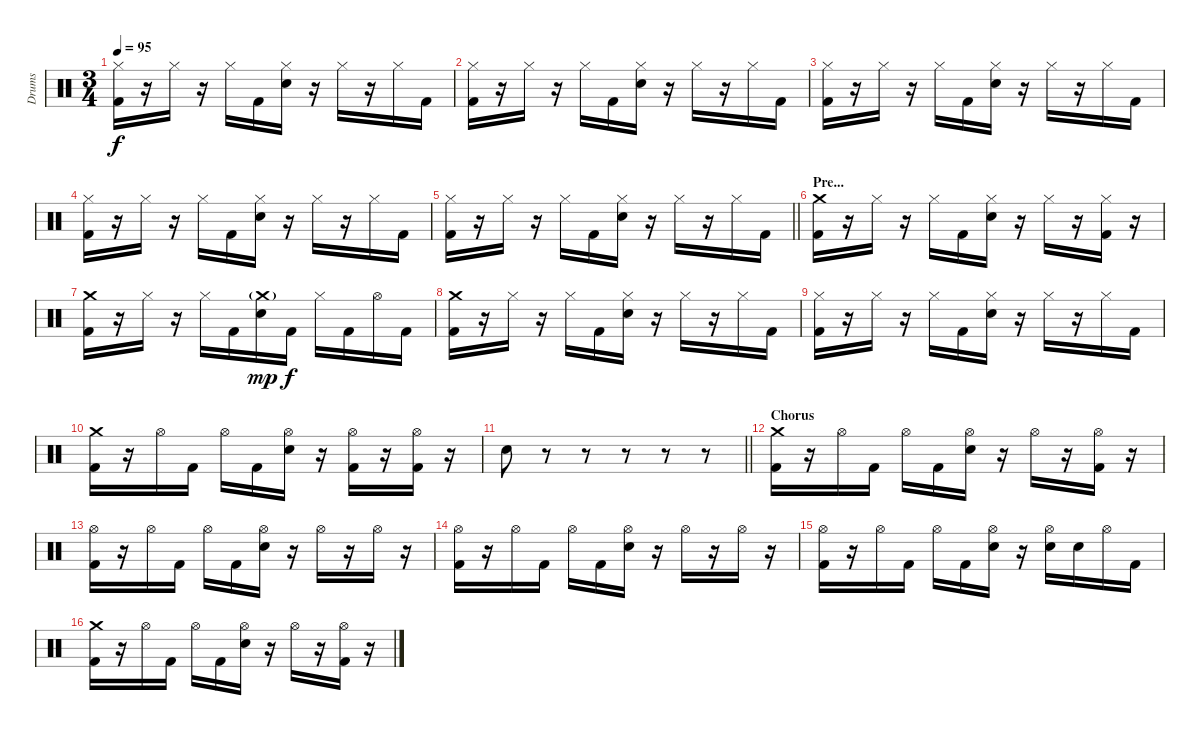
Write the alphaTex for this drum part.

\track ("Drums" "Drums") {instrument percussion}
\staff {score}
\articulation defaults
\ts (3 4)
\tempo 95
\clef neutral
\ks c
("Hi-Hat (closed)" "Kick (hit) 2").16{dy f} r.16 "Hi-Hat (closed)".16 r.16 "Hi-Hat (closed)".16 "Kick (hit) 2".16 ("Hi-Hat (closed)" "Electric Snare (hit)").16 r.16 "Hi-Hat (closed)".16 r.16 "Hi-Hat (closed)".16 "Kick (hit) 2".16 |
("Hi-Hat (closed)" "Kick (hit) 2").16 r.16 "Hi-Hat (closed)".16 r.16 "Hi-Hat (closed)".16 "Kick (hit) 2".16 ("Hi-Hat (closed)" "Electric Snare (hit)").16 r.16 "Hi-Hat (closed)".16 r.16 "Hi-Hat (closed)".16 "Kick (hit) 2".16 |
("Hi-Hat (closed)" "Kick (hit) 2").16 r.16 "Hi-Hat (closed)".16 r.16 "Hi-Hat (closed)".16 "Kick (hit) 2".16 ("Hi-Hat (closed)" "Electric Snare (hit)").16 r.16 "Hi-Hat (closed)".16 r.16 "Hi-Hat (closed)".16 "Kick (hit) 2".16 |
("Hi-Hat (closed)" "Kick (hit) 2").16 r.16 "Hi-Hat (closed)".16 r.16 "Hi-Hat (closed)".16 "Kick (hit) 2".16 ("Hi-Hat (closed)" "Electric Snare (hit)").16 r.16 "Hi-Hat (closed)".16 r.16 "Hi-Hat (closed)".16 "Kick (hit) 2".16 |
\barLineRight lightlight
("Hi-Hat (closed)" "Kick (hit) 2").16 r.16 "Hi-Hat (closed)".16 r.16 "Hi-Hat (closed)".16 "Kick (hit) 2".16 ("Hi-Hat (closed)" "Electric Snare (hit)").16 r.16 "Hi-Hat (closed)".16 r.16 "Hi-Hat (closed)".16 "Kick (hit) 2".16 |
\section ("" "Pre...")
("Crash medium (hit)" "Kick (hit) 2").16 r.16 "Hi-Hat (closed)".16 r.16 "Hi-Hat (closed)".16 "Kick (hit) 2".16 ("Hi-Hat (closed)" "Electric Snare (hit)").16 r.16 "Hi-Hat (closed)".16 r.16 ("Hi-Hat (closed)" "Kick (hit) 2").16 r.16 |
("Crash medium (hit)" "Kick (hit) 2").16 r.16 "Hi-Hat (closed)".16 r.16 "Hi-Hat (closed)".16 "Kick (hit) 2".16 ("Crash medium (hit)"{g} "Electric Snare (hit)").16{dy mp} "Kick (hit) 2".16{dy f} "Hi-Hat (closed)".16 "Kick (hit) 2".16 "Hi-Hat (open)".16 "Kick (hit) 2".16 |
("Crash medium (hit)" "Kick (hit) 2").16 r.16 "Hi-Hat (closed)".16 r.16 "Hi-Hat (closed)".16 "Kick (hit) 2".16 ("Hi-Hat (closed)" "Electric Snare (hit)").16 r.16 "Hi-Hat (closed)".16 r.16 "Hi-Hat (closed)".16 "Kick (hit) 2".16 |
("Hi-Hat (closed)" "Kick (hit) 2").16 r.16 "Hi-Hat (closed)".16 r.16 "Hi-Hat (closed)".16 "Kick (hit) 2".16 ("Hi-Hat (closed)" "Electric Snare (hit)").16 r.16 "Hi-Hat (closed)".16 r.16 "Hi-Hat (closed)".16 "Kick (hit) 2".16 |
("Crash medium (hit)" "Kick (hit) 2").16 r.16 "Hi-Hat (open)".16 "Kick (hit) 2".16 "Hi-Hat (open)".16 "Kick (hit) 2".16 ("Hi-Hat (open)" "Electric Snare (hit)").16 r.16 ("Hi-Hat (open)" "Kick (hit) 2").16 r.16 ("Hi-Hat (open)" "Kick (hit) 2").16 r.16 |
\barLineRight lightlight "Electric Snare (hit)".8
r.8 r.8 r.8 r.8 r.8 |
\section ("" "Chorus")
("Crash medium (hit)" "Kick (hit) 2").16 r.16 "Hi-Hat (open)".16 "Kick (hit) 2".16 "Hi-Hat (open)".16 "Kick (hit) 2".16 ("Hi-Hat (open)" "Electric Snare (hit)").16 r.16 "Hi-Hat (open)".16 r.16 ("Hi-Hat (open)" "Kick (hit) 2").16 r.16 |
("Hi-Hat (open)" "Kick (hit) 2").16 r.16 "Hi-Hat (open)".16 "Kick (hit) 2".16 "Hi-Hat (open)".16 "Kick (hit) 2".16 ("Hi-Hat (open)" "Electric Snare (hit)").16 r.16 "Hi-Hat (open)".16 r.16 "Hi-Hat (open)".16 r.16 |
("Hi-Hat (open)" "Kick (hit) 2").16 r.16 "Hi-Hat (open)".16 "Kick (hit) 2".16 "Hi-Hat (open)".16 "Kick (hit) 2".16 ("Hi-Hat (open)" "Electric Snare (hit)").16 r.16 "Hi-Hat (open)".16 r.16 "Hi-Hat (open)".16 r.16 |
("Hi-Hat (open)" "Kick (hit) 2").16 r.16 "Hi-Hat (open)".16 "Kick (hit) 2".16 "Hi-Hat (open)".16 "Kick (hit) 2".16 ("Hi-Hat (open)" "Electric Snare (hit)").16 r.16 ("Hi-Hat (open)" "Electric Snare (hit)").16 "Electric Snare (hit)".16 "Hi-Hat (open)".16 "Kick (hit) 2".16 |
("Crash medium (hit)" "Kick (hit) 2").16 r.16 "Hi-Hat (open)".16 "Kick (hit) 2".16 "Hi-Hat (open)".16 "Kick (hit) 2".16 ("Hi-Hat (open)" "Electric Snare (hit)").16 r.16 "Hi-Hat (open)".16 r.16 ("Hi-Hat (open)" "Kick (hit) 2").16 r.16
